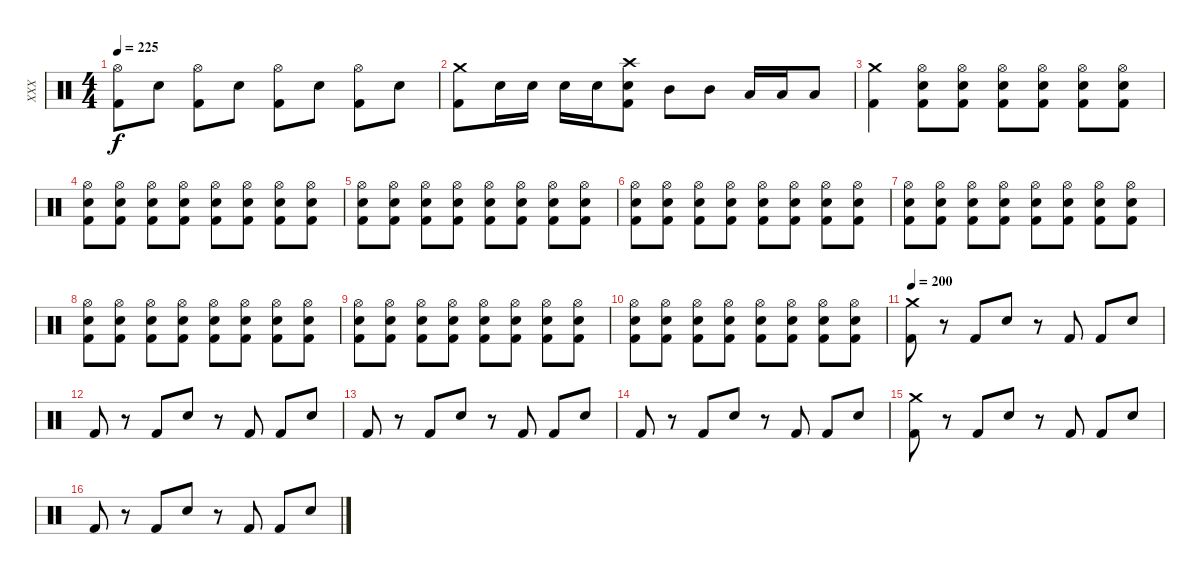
\track ("XXX" "XXX") {instrument percussion}
\staff {score}
\articulation defaults
\ts (4 4)
\tempo 225
\clef neutral
\ks c
("Hi-Hat (open)" "Kick (hit) 2").8{dy f} "Electric Snare (hit)".8 ("Hi-Hat (open)" "Kick (hit) 2").8 "Electric Snare (hit)".8 ("Hi-Hat (open)" "Kick (hit) 2").8 "Electric Snare (hit)".8 ("Hi-Hat (open)" "Kick (hit) 2").8 "Electric Snare (hit)".8 |
("Crash medium (hit)" "Kick (hit) 2").8 "Electric Snare (hit)".16 "Electric Snare (hit)".16 "Electric Snare (hit)".16 "Electric Snare (hit)".16 ("Crash high (hit)" "Electric Snare (hit)" "Kick (hit) 2").8 "Mid Tom (hit)".8 "Mid Tom (hit)".8 "Low Tom (hit)".16 "Low Tom (hit)".16 "Low Tom (hit)".8 |
("Crash medium (hit)" "Kick (hit) 2").4 ("Hi-Hat (open)" "Electric Snare (hit)" "Kick (hit) 2").8 ("Hi-Hat (open)" "Electric Snare (hit)" "Kick (hit) 2").8 ("Hi-Hat (open)" "Electric Snare (hit)" "Kick (hit) 2").8 ("Hi-Hat (open)" "Electric Snare (hit)" "Kick (hit) 2").8 ("Hi-Hat (open)" "Electric Snare (hit)" "Kick (hit) 2").8 ("Hi-Hat (open)" "Electric Snare (hit)" "Kick (hit) 2").8 |
("Hi-Hat (open)" "Electric Snare (hit)" "Kick (hit) 2").8 ("Hi-Hat (open)" "Electric Snare (hit)" "Kick (hit) 2").8 ("Hi-Hat (open)" "Electric Snare (hit)" "Kick (hit) 2").8 ("Hi-Hat (open)" "Electric Snare (hit)" "Kick (hit) 2").8 ("Hi-Hat (open)" "Electric Snare (hit)" "Kick (hit) 2").8 ("Hi-Hat (open)" "Electric Snare (hit)" "Kick (hit) 2").8 ("Hi-Hat (open)" "Electric Snare (hit)" "Kick (hit) 2").8 ("Hi-Hat (open)" "Electric Snare (hit)" "Kick (hit) 2").8 |
("Hi-Hat (open)" "Electric Snare (hit)" "Kick (hit) 2").8 ("Hi-Hat (open)" "Electric Snare (hit)" "Kick (hit) 2").8 ("Hi-Hat (open)" "Electric Snare (hit)" "Kick (hit) 2").8 ("Hi-Hat (open)" "Electric Snare (hit)" "Kick (hit) 2").8 ("Hi-Hat (open)" "Electric Snare (hit)" "Kick (hit) 2").8 ("Hi-Hat (open)" "Electric Snare (hit)" "Kick (hit) 2").8 ("Hi-Hat (open)" "Electric Snare (hit)" "Kick (hit) 2").8 ("Hi-Hat (open)" "Electric Snare (hit)" "Kick (hit) 2").8 |
("Hi-Hat (open)" "Electric Snare (hit)" "Kick (hit) 2").8 ("Hi-Hat (open)" "Electric Snare (hit)" "Kick (hit) 2").8 ("Hi-Hat (open)" "Electric Snare (hit)" "Kick (hit) 2").8 ("Hi-Hat (open)" "Electric Snare (hit)" "Kick (hit) 2").8 ("Hi-Hat (open)" "Electric Snare (hit)" "Kick (hit) 2").8 ("Hi-Hat (open)" "Electric Snare (hit)" "Kick (hit) 2").8 ("Hi-Hat (open)" "Electric Snare (hit)" "Kick (hit) 2").8 ("Hi-Hat (open)" "Electric Snare (hit)" "Kick (hit) 2").8 |
("Hi-Hat (open)" "Electric Snare (hit)" "Kick (hit) 2").8 ("Hi-Hat (open)" "Electric Snare (hit)" "Kick (hit) 2").8 ("Hi-Hat (open)" "Electric Snare (hit)" "Kick (hit) 2").8 ("Hi-Hat (open)" "Electric Snare (hit)" "Kick (hit) 2").8 ("Hi-Hat (open)" "Electric Snare (hit)" "Kick (hit) 2").8 ("Hi-Hat (open)" "Electric Snare (hit)" "Kick (hit) 2").8 ("Hi-Hat (open)" "Electric Snare (hit)" "Kick (hit) 2").8 ("Hi-Hat (open)" "Electric Snare (hit)" "Kick (hit) 2").8 |
("Hi-Hat (open)" "Electric Snare (hit)" "Kick (hit) 2").8 ("Hi-Hat (open)" "Electric Snare (hit)" "Kick (hit) 2").8 ("Hi-Hat (open)" "Electric Snare (hit)" "Kick (hit) 2").8 ("Hi-Hat (open)" "Electric Snare (hit)" "Kick (hit) 2").8 ("Hi-Hat (open)" "Electric Snare (hit)" "Kick (hit) 2").8 ("Hi-Hat (open)" "Electric Snare (hit)" "Kick (hit) 2").8 ("Hi-Hat (open)" "Electric Snare (hit)" "Kick (hit) 2").8 ("Hi-Hat (open)" "Electric Snare (hit)" "Kick (hit) 2").8 |
("Hi-Hat (open)" "Electric Snare (hit)" "Kick (hit) 2").8 ("Hi-Hat (open)" "Electric Snare (hit)" "Kick (hit) 2").8 ("Hi-Hat (open)" "Electric Snare (hit)" "Kick (hit) 2").8 ("Hi-Hat (open)" "Electric Snare (hit)" "Kick (hit) 2").8 ("Hi-Hat (open)" "Electric Snare (hit)" "Kick (hit) 2").8 ("Hi-Hat (open)" "Electric Snare (hit)" "Kick (hit) 2").8 ("Hi-Hat (open)" "Electric Snare (hit)" "Kick (hit) 2").8 ("Hi-Hat (open)" "Electric Snare (hit)" "Kick (hit) 2").8 |
("Hi-Hat (open)" "Electric Snare (hit)" "Kick (hit) 2").8 ("Hi-Hat (open)" "Electric Snare (hit)" "Kick (hit) 2").8 ("Hi-Hat (open)" "Electric Snare (hit)" "Kick (hit) 2").8 ("Hi-Hat (open)" "Electric Snare (hit)" "Kick (hit) 2").8 ("Hi-Hat (open)" "Electric Snare (hit)" "Kick (hit) 2").8 ("Hi-Hat (open)" "Electric Snare (hit)" "Kick (hit) 2").8 ("Hi-Hat (open)" "Electric Snare (hit)" "Kick (hit) 2").8 ("Hi-Hat (open)" "Electric Snare (hit)" "Kick (hit) 2").8 |
\tempo 200
("Crash medium (hit)" "Kick (hit) 2").8 r.8 "Kick (hit) 2".8 "Electric Snare (hit)".8 r.8 "Kick (hit) 2".8 "Kick (hit) 2".8 "Electric Snare (hit)".8 |
"Kick (hit) 2".8 r.8 "Kick (hit) 2".8 "Electric Snare (hit)".8 r.8 "Kick (hit) 2".8 "Kick (hit) 2".8 "Electric Snare (hit)".8 |
"Kick (hit) 2".8 r.8 "Kick (hit) 2".8 "Electric Snare (hit)".8 r.8 "Kick (hit) 2".8 "Kick (hit) 2".8 "Electric Snare (hit)".8 |
"Kick (hit) 2".8 r.8 "Kick (hit) 2".8 "Electric Snare (hit)".8 r.8 "Kick (hit) 2".8 "Kick (hit) 2".8 "Electric Snare (hit)".8 |
("Crash medium (hit)" "Kick (hit) 2").8 r.8 "Kick (hit) 2".8 "Electric Snare (hit)".8 r.8 "Kick (hit) 2".8 "Kick (hit) 2".8 "Electric Snare (hit)".8 |
"Kick (hit) 2".8 r.8 "Kick (hit) 2".8 "Electric Snare (hit)".8 r.8 "Kick (hit) 2".8 "Kick (hit) 2".8 "Electric Snare (hit)".8
